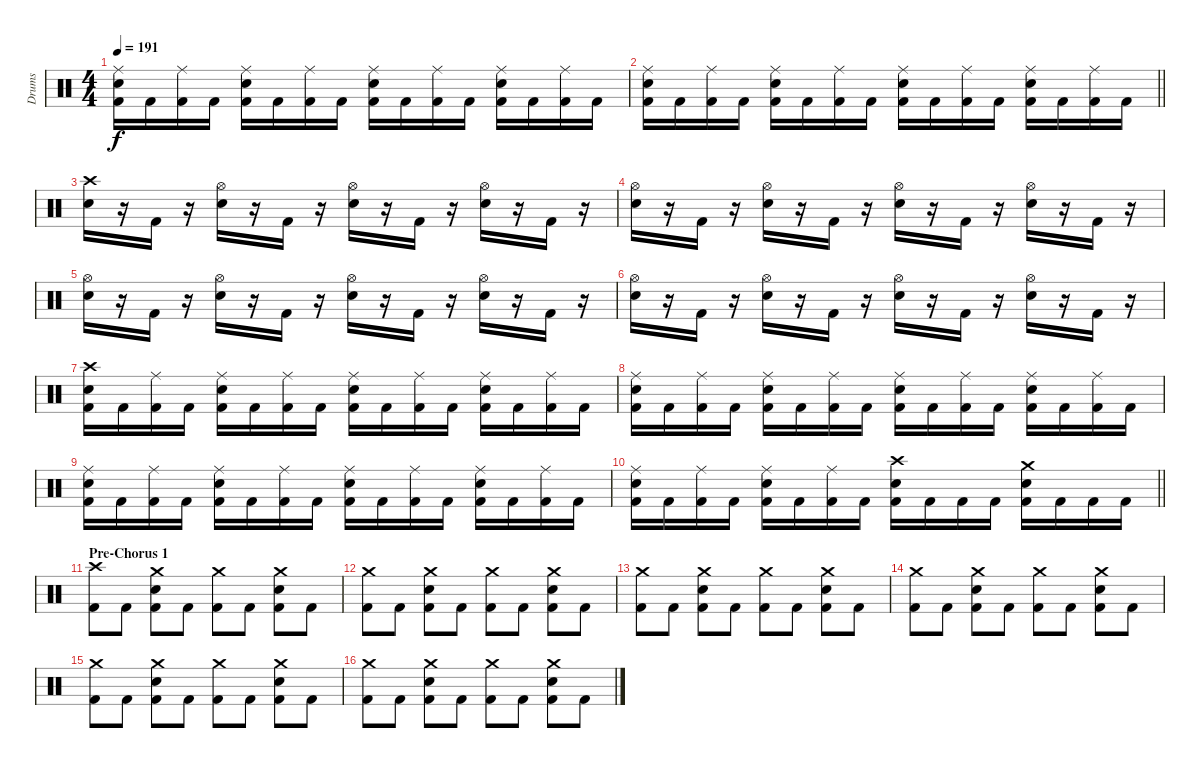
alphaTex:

\track ("Drums" "Drums") {instrument percussion}
\staff {score}
\articulation defaults
\ts (4 4)
\tempo 191
\clef neutral
\ks c
("Ride (middle)" "Snare (hit) 2" "Kick (hit) 2").16{dy f} "Kick (hit) 2".16 ("Ride (middle)" "Kick (hit) 2").16 "Kick (hit) 2".16 ("Ride (middle)" "Snare (hit) 2" "Kick (hit) 2").16 "Kick (hit) 2".16 ("Ride (middle)" "Kick (hit) 2").16 "Kick (hit) 2".16 ("Ride (middle)" "Snare (hit) 2" "Kick (hit) 2").16 "Kick (hit) 2".16 ("Ride (middle)" "Kick (hit) 2").16 "Kick (hit) 2".16 ("Ride (middle)" "Snare (hit) 2" "Kick (hit) 2").16 "Kick (hit) 2".16 ("Ride (middle)" "Kick (hit) 2").16 "Kick (hit) 2".16 |
\barLineRight lightlight
("Ride (middle)" "Snare (hit) 2" "Kick (hit) 2").16 "Kick (hit) 2".16 ("Ride (middle)" "Kick (hit) 2").16 "Kick (hit) 2".16 ("Ride (middle)" "Snare (hit) 2" "Kick (hit) 2").16 "Kick (hit) 2".16 ("Ride (middle)" "Kick (hit) 2").16 "Kick (hit) 2".16 ("Ride (middle)" "Snare (hit) 2" "Kick (hit) 2").16 "Kick (hit) 2".16 ("Ride (middle)" "Kick (hit) 2").16 "Kick (hit) 2".16 ("Ride (middle)" "Snare (hit) 2" "Kick (hit) 2").16 "Kick (hit) 2".16 ("Ride (middle)" "Kick (hit) 2").16 "Kick (hit) 2".16 |
\section ("" "")
("Crash high (hit)" "Snare (hit) 2").16 r.16 "Kick (hit) 2".16 r.16 ("Hi-Hat (open)" "Snare (hit) 2").16 r.16 "Kick (hit) 2".16 r.16 ("Hi-Hat (open)" "Snare (hit) 2").16 r.16 "Kick (hit) 2".16 r.16 ("Hi-Hat (open)" "Snare (hit) 2").16 r.16 "Kick (hit) 2".16 r.16 |
("Hi-Hat (open)" "Snare (hit) 2").16 r.16 "Kick (hit) 2".16 r.16 ("Hi-Hat (open)" "Snare (hit) 2").16 r.16 "Kick (hit) 2".16 r.16 ("Hi-Hat (open)" "Snare (hit) 2").16 r.16 "Kick (hit) 2".16 r.16 ("Hi-Hat (open)" "Snare (hit) 2").16 r.16 "Kick (hit) 2".16 r.16 |
("Hi-Hat (open)" "Snare (hit) 2").16 r.16 "Kick (hit) 2".16 r.16 ("Hi-Hat (open)" "Snare (hit) 2").16 r.16 "Kick (hit) 2".16 r.16 ("Hi-Hat (open)" "Snare (hit) 2").16 r.16 "Kick (hit) 2".16 r.16 ("Hi-Hat (open)" "Snare (hit) 2").16 r.16 "Kick (hit) 2".16 r.16 |
("Hi-Hat (open)" "Snare (hit) 2").16 r.16 "Kick (hit) 2".16 r.16 ("Hi-Hat (open)" "Snare (hit) 2").16 r.16 "Kick (hit) 2".16 r.16 ("Hi-Hat (open)" "Snare (hit) 2").16 r.16 "Kick (hit) 2".16 r.16 ("Hi-Hat (open)" "Snare (hit) 2").16 r.16 "Kick (hit) 2".16 r.16 |
("Crash high (hit)" "Snare (hit) 2" "Kick (hit) 2").16 "Kick (hit) 2".16 ("Ride (middle)" "Kick (hit) 2").16 "Kick (hit) 2".16 ("Ride (middle)" "Snare (hit) 2" "Kick (hit) 2").16 "Kick (hit) 2".16 ("Ride (middle)" "Kick (hit) 2").16 "Kick (hit) 2".16 ("Ride (middle)" "Snare (hit) 2" "Kick (hit) 2").16 "Kick (hit) 2".16 ("Ride (middle)" "Kick (hit) 2").16 "Kick (hit) 2".16 ("Ride (middle)" "Snare (hit) 2" "Kick (hit) 2").16 "Kick (hit) 2".16 ("Ride (middle)" "Kick (hit) 2").16 "Kick (hit) 2".16 |
("Ride (middle)" "Snare (hit) 2" "Kick (hit) 2").16 "Kick (hit) 2".16 ("Ride (middle)" "Kick (hit) 2").16 "Kick (hit) 2".16 ("Ride (middle)" "Snare (hit) 2" "Kick (hit) 2").16 "Kick (hit) 2".16 ("Ride (middle)" "Kick (hit) 2").16 "Kick (hit) 2".16 ("Ride (middle)" "Snare (hit) 2" "Kick (hit) 2").16 "Kick (hit) 2".16 ("Ride (middle)" "Kick (hit) 2").16 "Kick (hit) 2".16 ("Ride (middle)" "Snare (hit) 2" "Kick (hit) 2").16 "Kick (hit) 2".16 ("Ride (middle)" "Kick (hit) 2").16 "Kick (hit) 2".16 |
("Ride (middle)" "Snare (hit) 2" "Kick (hit) 2").16 "Kick (hit) 2".16 ("Ride (middle)" "Kick (hit) 2").16 "Kick (hit) 2".16 ("Ride (middle)" "Snare (hit) 2" "Kick (hit) 2").16 "Kick (hit) 2".16 ("Ride (middle)" "Kick (hit) 2").16 "Kick (hit) 2".16 ("Ride (middle)" "Snare (hit) 2" "Kick (hit) 2").16 "Kick (hit) 2".16 ("Ride (middle)" "Kick (hit) 2").16 "Kick (hit) 2".16 ("Ride (middle)" "Snare (hit) 2" "Kick (hit) 2").16 "Kick (hit) 2".16 ("Ride (middle)" "Kick (hit) 2").16 "Kick (hit) 2".16 |
\barLineRight lightlight
("Ride (middle)" "Snare (hit) 2" "Kick (hit) 2").16 "Kick (hit) 2".16 ("Ride (middle)" "Kick (hit) 2").16 "Kick (hit) 2".16 ("Ride (middle)" "Snare (hit) 2" "Kick (hit) 2").16 "Kick (hit) 2".16 ("Ride (middle)" "Kick (hit) 2").16 "Kick (hit) 2".16 ("Crash high (hit)" "Snare (hit) 2" "Kick (hit) 2").16 "Kick (hit) 2".16 "Kick (hit) 2".16 "Kick (hit) 2".16 ("Crash medium (hit)" "Snare (hit) 2" "Kick (hit) 2").16 "Kick (hit) 2".16 "Kick (hit) 2".16 "Kick (hit) 2".16 |
\section ("" "Pre-Chorus 1")
("Crash high (hit)" "Kick (hit) 2").8 "Kick (hit) 2".8 ("Crash medium (hit)" "Snare (hit) 2" "Kick (hit) 2").8 "Kick (hit) 2".8 ("Crash medium (hit)" "Kick (hit) 2").8 "Kick (hit) 2".8 ("Crash medium (hit)" "Snare (hit) 2" "Kick (hit) 2").8 "Kick (hit) 2".8 |
("Crash medium (hit)" "Kick (hit) 2").8 "Kick (hit) 2".8 ("Crash medium (hit)" "Snare (hit) 2" "Kick (hit) 2").8 "Kick (hit) 2".8 ("Crash medium (hit)" "Kick (hit) 2").8 "Kick (hit) 2".8 ("Crash medium (hit)" "Snare (hit) 2" "Kick (hit) 2").8 "Kick (hit) 2".8 |
("Crash medium (hit)" "Kick (hit) 2").8 "Kick (hit) 2".8 ("Crash medium (hit)" "Snare (hit) 2" "Kick (hit) 2").8 "Kick (hit) 2".8 ("Crash medium (hit)" "Kick (hit) 2").8 "Kick (hit) 2".8 ("Crash medium (hit)" "Snare (hit) 2" "Kick (hit) 2").8 "Kick (hit) 2".8 |
("Crash medium (hit)" "Kick (hit) 2").8 "Kick (hit) 2".8 ("Crash medium (hit)" "Snare (hit) 2" "Kick (hit) 2").8 "Kick (hit) 2".8 ("Crash medium (hit)" "Kick (hit) 2").8 "Kick (hit) 2".8 ("Crash medium (hit)" "Snare (hit) 2" "Kick (hit) 2").8 "Kick (hit) 2".8 |
("Crash medium (hit)" "Kick (hit) 2").8 "Kick (hit) 2".8 ("Crash medium (hit)" "Snare (hit) 2" "Kick (hit) 2").8 "Kick (hit) 2".8 ("Crash medium (hit)" "Kick (hit) 2").8 "Kick (hit) 2".8 ("Crash medium (hit)" "Snare (hit) 2" "Kick (hit) 2").8 "Kick (hit) 2".8 |
("Crash medium (hit)" "Kick (hit) 2").8 "Kick (hit) 2".8 ("Crash medium (hit)" "Snare (hit) 2" "Kick (hit) 2").8 "Kick (hit) 2".8 ("Crash medium (hit)" "Kick (hit) 2").8 "Kick (hit) 2".8 ("Crash medium (hit)" "Snare (hit) 2" "Kick (hit) 2").8 "Kick (hit) 2".8
